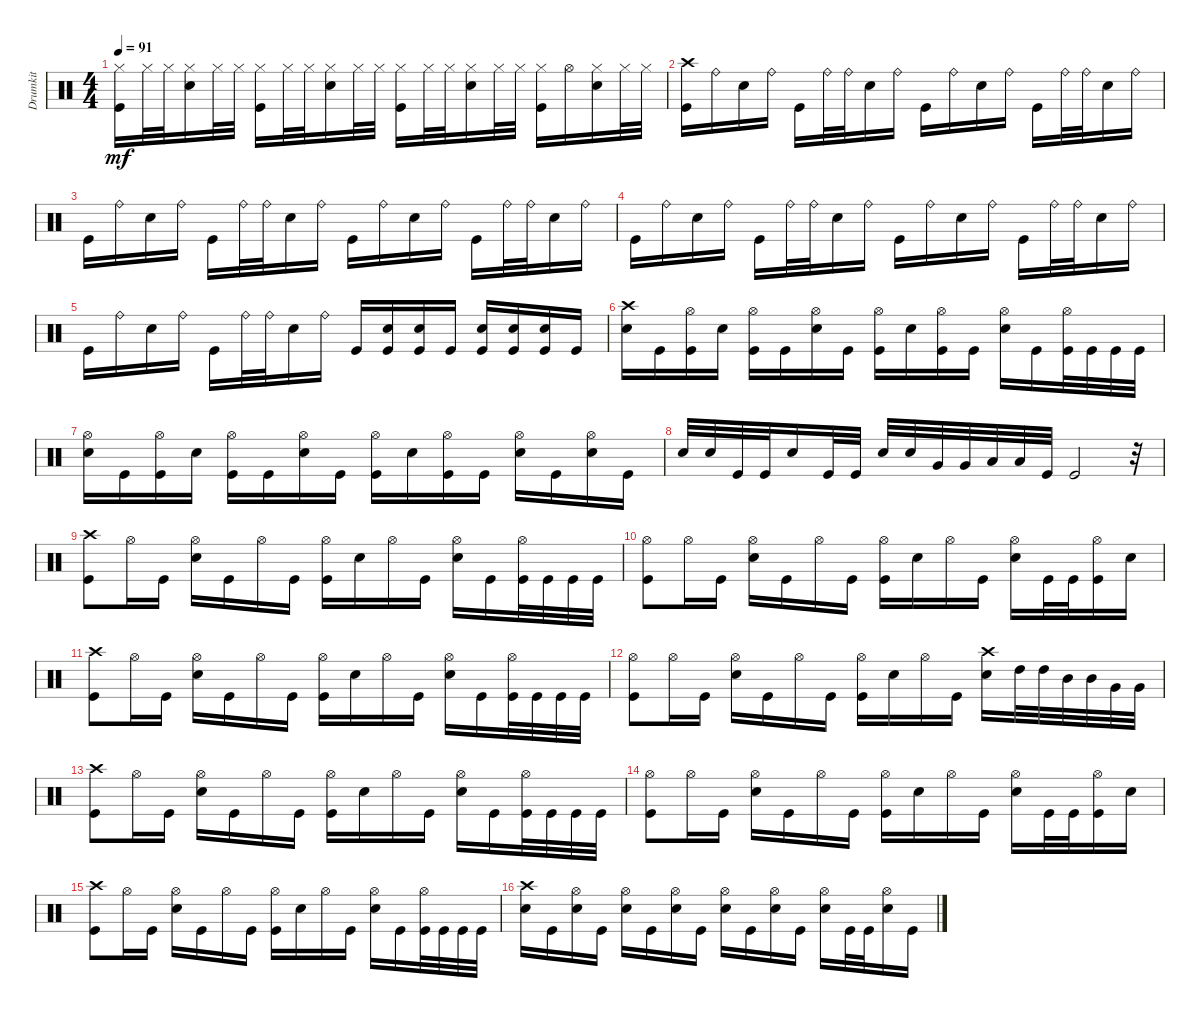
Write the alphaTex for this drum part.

\track ("Drumkit" "Drumkit") {instrument percussion}
\staff {score}
\articulation defaults
\ts (4 4)
\tempo 91
\clef neutral
\ks c
("Kick (hit)" "Hi-Hat (closed)").16{dy mf} "Hi-Hat (closed)".32 "Hi-Hat (closed)".32 ("Hi-Hat (closed)" "Snare (hit) 2").16 "Hi-Hat (closed)".32 "Hi-Hat (closed)".32 ("Hi-Hat (closed)" "Kick (hit)").16 "Hi-Hat (closed)".32 "Hi-Hat (closed)".32 ("Hi-Hat (closed)" "Snare (hit) 2").16 "Hi-Hat (closed)".32 "Hi-Hat (closed)".32 ("Hi-Hat (closed)" "Kick (hit)").16 "Hi-Hat (closed)".32 "Hi-Hat (closed)".32 ("Hi-Hat (closed)" "Snare (hit) 2").16 "Hi-Hat (closed)".32 "Hi-Hat (closed)".32 ("Hi-Hat (closed)" "Kick (hit)").16 "Hi-Hat (open)".16 ("Hi-Hat (closed)" "Snare (hit) 2").16 "Hi-Hat (closed)".32 "Hi-Hat (closed)".32 |
("Crash high (hit)" "Kick (hit)").16 "Ride (bell)".16 "Snare (hit) 2".16 "Ride (bell)".16 "Kick (hit)".16 "Ride (bell)".32 "Ride (bell)".32 "Snare (hit) 2".16 "Ride (bell)".16 "Kick (hit)".16 "Ride (bell)".16 "Snare (hit) 2".16 "Ride (bell)".16 "Kick (hit)".16 "Ride (bell)".32 "Ride (bell)".32 "Snare (hit) 2".16 "Ride (bell)".16 |
"Kick (hit)".16 "Ride (bell)".16 "Snare (hit) 2".16 "Ride (bell)".16 "Kick (hit)".16 "Ride (bell)".32 "Ride (bell)".32 "Snare (hit) 2".16 "Ride (bell)".16 "Kick (hit)".16 "Ride (bell)".16 "Snare (hit) 2".16 "Ride (bell)".16 "Kick (hit)".16 "Ride (bell)".32 "Ride (bell)".32 "Snare (hit) 2".16 "Ride (bell)".16 |
"Kick (hit)".16 "Ride (bell)".16 "Snare (hit) 2".16 "Ride (bell)".16 "Kick (hit)".16 "Ride (bell)".32 "Ride (bell)".32 "Snare (hit) 2".16 "Ride (bell)".16 "Kick (hit)".16 "Ride (bell)".16 "Snare (hit) 2".16 "Ride (bell)".16 "Kick (hit)".16 "Ride (bell)".32 "Ride (bell)".32 "Snare (hit) 2".16 "Ride (bell)".16 |
"Kick (hit)".16 "Ride (bell)".16 "Snare (hit) 2".16 "Ride (bell)".16 "Kick (hit)".16 "Ride (bell)".32 "Ride (bell)".32 "Snare (hit) 2".16 "Ride (bell)".16 "Kick (hit)".16 ("Kick (hit)" "Snare (hit) 2").16 ("Kick (hit)" "Snare (hit) 2").16 "Kick (hit)".16 ("Snare (hit) 2" "Kick (hit)").16 ("Kick (hit)" "Snare (hit) 2").16 ("Kick (hit)" "Snare (hit) 2").16 "Kick (hit)".16 |
("Crash high (hit)" "Snare (hit) 2").16 "Kick (hit)".16 ("Hi-Hat (open)" "Kick (hit)").16 "Snare (hit) 2".16 ("Hi-Hat (open)" "Kick (hit)").16 "Kick (hit)".16 ("Hi-Hat (open)" "Snare (hit) 2").16 "Kick (hit)".16 ("Hi-Hat (open)" "Kick (hit)").16 "Snare (hit) 2".16 ("Hi-Hat (open)" "Kick (hit)").16 "Kick (hit)".16 ("Hi-Hat (open)" "Snare (hit) 2").16 "Kick (hit)".16 ("Hi-Hat (open)" "Kick (hit)").32 "Kick (hit)".32 "Kick (hit)".32 "Kick (hit)".32 |
("Hi-Hat (open)" "Snare (hit) 2").16 "Kick (hit)".16 ("Hi-Hat (open)" "Kick (hit)").16 "Snare (hit) 2".16 ("Hi-Hat (open)" "Kick (hit)").16 "Kick (hit)".16 ("Hi-Hat (open)" "Snare (hit) 2").16 "Kick (hit)".16 ("Hi-Hat (open)" "Kick (hit)").16 "Snare (hit) 2".16 ("Hi-Hat (open)" "Kick (hit)").16 "Kick (hit)".16 ("Hi-Hat (open)" "Snare (hit) 2").16 "Kick (hit)".16 ("Snare (hit) 2" "Hi-Hat (open)").16 "Kick (hit)".16 |
"Snare (hit) 2".32 "Snare (hit) 2".32 "Kick (hit)".32 "Kick (hit)".32 "Snare (hit) 2".16 "Kick (hit)".32 "Kick (hit)".32 "Snare (hit) 2".32 "Snare (hit) 2".32 "Very Low Tom (hit)".32 "Very Low Tom (hit)".32 "Low Floor Tom (hit)".32 "Low Floor Tom (hit)".32 "Kick (hit)".32 "Kick (hit)".2 r.32 |
("Crash high (hit)" "Kick (hit)").8 "Hi-Hat (open)".16 "Kick (hit)".16 ("Hi-Hat (open)" "Snare (hit) 2").16 "Kick (hit)".16 "Hi-Hat (open)".16 "Kick (hit)".16 ("Hi-Hat (open)" "Kick (hit)").16 "Snare (hit) 2".16 "Hi-Hat (open)".16 "Kick (hit)".16 ("Hi-Hat (open)" "Snare (hit) 2").16 "Kick (hit)".16 ("Hi-Hat (open)" "Kick (hit)").32 "Kick (hit)".32 "Kick (hit)".32 "Kick (hit)".32 |
("Hi-Hat (open)" "Kick (hit)").8 "Hi-Hat (open)".16 "Kick (hit)".16 ("Hi-Hat (open)" "Snare (hit) 2").16 "Kick (hit)".16 "Hi-Hat (open)".16 "Kick (hit)".16 ("Hi-Hat (open)" "Kick (hit)").16 "Snare (hit) 2".16 "Hi-Hat (open)".16 "Kick (hit)".16 ("Hi-Hat (open)" "Snare (hit) 2").16 "Kick (hit)".32 "Kick (hit)".32 ("Hi-Hat (open)" "Kick (hit)").16 "Snare (hit) 2".16 |
("Crash high (hit)" "Kick (hit)").8 "Hi-Hat (open)".16 "Kick (hit)".16 ("Hi-Hat (open)" "Snare (hit) 2").16 "Kick (hit)".16 "Hi-Hat (open)".16 "Kick (hit)".16 ("Hi-Hat (open)" "Kick (hit)").16 "Snare (hit) 2".16 "Hi-Hat (open)".16 "Kick (hit)".16 ("Hi-Hat (open)" "Snare (hit) 2").16 "Kick (hit)".16 ("Hi-Hat (open)" "Kick (hit)").32 "Kick (hit)".32 "Kick (hit)".32 "Kick (hit)".32 |
("Hi-Hat (open)" "Kick (hit)").8 "Hi-Hat (open)".16 "Kick (hit)".16 ("Hi-Hat (open)" "Snare (hit) 2").16 "Kick (hit)".16 "Hi-Hat (open)".16 "Kick (hit)".16 ("Hi-Hat (open)" "Kick (hit)").16 "Snare (hit) 2".16 "Hi-Hat (open)".16 "Kick (hit)".16 ("Crash high (hit)" "Snare (hit) 2").16 "High Tom (hit)".32 "High Tom (hit)".32 "Mid Tom (hit)".32 "Mid Tom (hit)".32 "Very Low Tom (hit)".32 "Very Low Tom (hit)".32 |
("Crash high (hit)" "Kick (hit)").8 "Hi-Hat (open)".16 "Kick (hit)".16 ("Hi-Hat (open)" "Snare (hit) 2").16 "Kick (hit)".16 "Hi-Hat (open)".16 "Kick (hit)".16 ("Hi-Hat (open)" "Kick (hit)").16 "Snare (hit) 2".16 "Hi-Hat (open)".16 "Kick (hit)".16 ("Hi-Hat (open)" "Snare (hit) 2").16 "Kick (hit)".16 ("Hi-Hat (open)" "Kick (hit)").32 "Kick (hit)".32 "Kick (hit)".32 "Kick (hit)".32 |
("Hi-Hat (open)" "Kick (hit)").8 "Hi-Hat (open)".16 "Kick (hit)".16 ("Hi-Hat (open)" "Snare (hit) 2").16 "Kick (hit)".16 "Hi-Hat (open)".16 "Kick (hit)".16 ("Hi-Hat (open)" "Kick (hit)").16 "Snare (hit) 2".16 "Hi-Hat (open)".16 "Kick (hit)".16 ("Hi-Hat (open)" "Snare (hit) 2").16 "Kick (hit)".32 "Kick (hit)".32 ("Hi-Hat (open)" "Kick (hit)").16 "Snare (hit) 2".16 |
("Crash high (hit)" "Kick (hit)").8 "Hi-Hat (open)".16 "Kick (hit)".16 ("Hi-Hat (open)" "Snare (hit) 2").16 "Kick (hit)".16 "Hi-Hat (open)".16 "Kick (hit)".16 ("Hi-Hat (open)" "Kick (hit)").16 "Snare (hit) 2".16 "Hi-Hat (open)".16 "Kick (hit)".16 ("Hi-Hat (open)" "Snare (hit) 2").16 "Kick (hit)".16 ("Hi-Hat (open)" "Kick (hit)").32 "Kick (hit)".32 "Kick (hit)".32 "Kick (hit)".32 |
("Crash high (hit)" "Snare (hit) 2").16 "Kick (hit)".16 ("Hi-Hat (open)" "Snare (hit) 2").16 "Kick (hit)".16 ("Hi-Hat (open)" "Snare (hit) 2").16 "Kick (hit)".16 ("Hi-Hat (open)" "Snare (hit) 2").16 "Kick (hit)".16 ("Hi-Hat (open)" "Snare (hit) 2").16 "Kick (hit)".16 ("Hi-Hat (open)" "Snare (hit) 2").16 "Kick (hit)".16 ("Hi-Hat (open)" "Snare (hit) 2").16 "Kick (hit)".32 "Kick (hit)".32 ("Hi-Hat (open)" "Snare (hit) 2").16 "Kick (hit)".16
